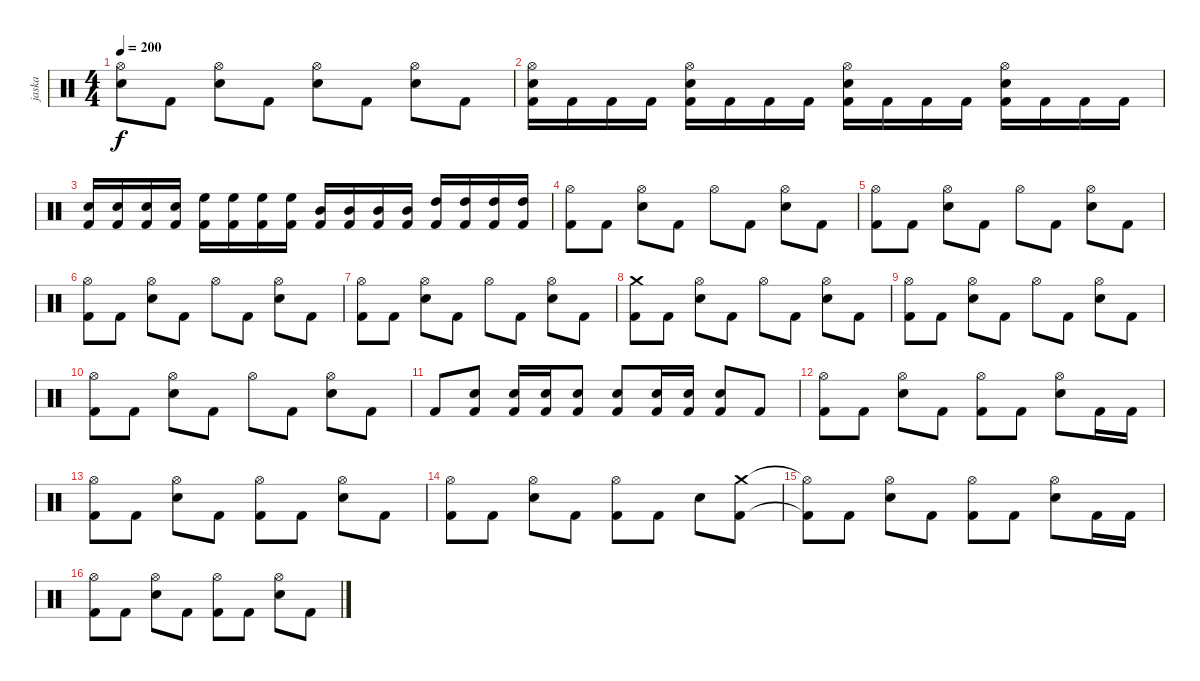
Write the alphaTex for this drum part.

\track ("jaska" "jaska") {instrument percussion}
\staff {score}
\articulation defaults
\ts (4 4)
\tempo 200
\clef neutral
\ks c
("Hi-Hat (open)" "Snare (hit) 2").8{dy f} "Kick (hit) 2".8 ("Hi-Hat (open)" "Snare (hit) 2").8 "Kick (hit) 2".8 ("Hi-Hat (open)" "Snare (hit) 2").8 "Kick (hit) 2".8 ("Hi-Hat (open)" "Snare (hit) 2").8 "Kick (hit) 2".8 |
("Hi-Hat (open)" "Snare (hit) 2" "Kick (hit) 2").16 "Kick (hit) 2".16 "Kick (hit) 2".16 "Kick (hit) 2".16 ("Hi-Hat (open)" "Snare (hit) 2" "Kick (hit) 2").16 "Kick (hit) 2".16 "Kick (hit) 2".16 "Kick (hit) 2".16 ("Hi-Hat (open)" "Snare (hit) 2" "Kick (hit) 2").16 "Kick (hit) 2".16 "Kick (hit) 2".16 "Kick (hit) 2".16 ("Hi-Hat (open)" "Snare (hit) 2" "Kick (hit) 2").16 "Kick (hit) 2".16 "Kick (hit) 2".16 "Kick (hit) 2".16 |
("Snare (hit) 2" "Kick (hit) 2").16 ("Snare (hit) 2" "Kick (hit) 2").16 ("Snare (hit) 2" "Kick (hit) 2").16 ("Snare (hit) 2" "Kick (hit) 2").16 ("High Floor Tom (hit)" "Kick (hit) 2").16 ("High Floor Tom (hit)" "Kick (hit) 2").16 ("High Floor Tom (hit)" "Kick (hit) 2").16 ("High Floor Tom (hit)" "Kick (hit) 2").16 ("Mid Tom (hit)" "Kick (hit) 2").16 ("Mid Tom (hit)" "Kick (hit) 2").16 ("Mid Tom (hit)" "Kick (hit) 2").16 ("Mid Tom (hit)" "Kick (hit) 2").16 ("High Tom (hit)" "Kick (hit) 2").16 ("High Tom (hit)" "Kick (hit) 2").16 ("High Tom (hit)" "Kick (hit) 2").16 ("High Tom (hit)" "Kick (hit) 2").16 |
("Hi-Hat (open)" "Kick (hit) 2").8 "Kick (hit) 2".8 ("Hi-Hat (open)" "Electric Snare (hit)").8 "Kick (hit) 2".8 "Hi-Hat (open)".8 "Kick (hit) 2".8 ("Hi-Hat (open)" "Electric Snare (hit)").8 "Kick (hit) 2".8 |
("Hi-Hat (open)" "Kick (hit) 2").8 "Kick (hit) 2".8 ("Hi-Hat (open)" "Electric Snare (hit)").8 "Kick (hit) 2".8 "Hi-Hat (open)".8 "Kick (hit) 2".8 ("Hi-Hat (open)" "Electric Snare (hit)").8 "Kick (hit) 2".8 |
("Hi-Hat (open)" "Kick (hit) 2").8 "Kick (hit) 2".8 ("Hi-Hat (open)" "Electric Snare (hit)").8 "Kick (hit) 2".8 "Hi-Hat (open)".8 "Kick (hit) 2".8 ("Hi-Hat (open)" "Electric Snare (hit)").8 "Kick (hit) 2".8 |
("Hi-Hat (open)" "Kick (hit) 2").8 "Kick (hit) 2".8 ("Hi-Hat (open)" "Electric Snare (hit)").8 "Kick (hit) 2".8 "Hi-Hat (open)".8 "Kick (hit) 2".8 ("Hi-Hat (open)" "Electric Snare (hit)").8 "Kick (hit) 2".8 |
("Crash medium (hit)" "Kick (hit) 2").8 "Kick (hit) 2".8 ("Hi-Hat (open)" "Electric Snare (hit)").8 "Kick (hit) 2".8 "Hi-Hat (open)".8 "Kick (hit) 2".8 ("Hi-Hat (open)" "Electric Snare (hit)").8 "Kick (hit) 2".8 |
("Hi-Hat (open)" "Kick (hit) 2").8 "Kick (hit) 2".8 ("Hi-Hat (open)" "Electric Snare (hit)").8 "Kick (hit) 2".8 "Hi-Hat (open)".8 "Kick (hit) 2".8 ("Hi-Hat (open)" "Electric Snare (hit)").8 "Kick (hit) 2".8 |
("Hi-Hat (open)" "Kick (hit) 2").8 "Kick (hit) 2".8 ("Hi-Hat (open)" "Electric Snare (hit)").8 "Kick (hit) 2".8 "Hi-Hat (open)".8 "Kick (hit) 2".8 ("Hi-Hat (open)" "Electric Snare (hit)").8 "Kick (hit) 2".8 |
"Kick (hit) 2".8 ("Electric Snare (hit)" "Kick (hit) 2").8 ("Electric Snare (hit)" "Kick (hit) 2").16 ("Electric Snare (hit)" "Kick (hit) 2").16 ("Electric Snare (hit)" "Kick (hit) 2").8 ("Electric Snare (hit)" "Kick (hit) 2").8 ("Electric Snare (hit)" "Kick (hit) 2").16 ("Electric Snare (hit)" "Kick (hit) 2").16 ("Electric Snare (hit)" "Kick (hit) 2").8 "Kick (hit) 2".8 |
("Hi-Hat (open)" "Kick (hit) 2").8 "Kick (hit) 2".8 ("Hi-Hat (open)" "Snare (hit) 2").8 "Kick (hit) 2".8 ("Hi-Hat (open)" "Kick (hit) 2").8 "Kick (hit) 2".8 ("Hi-Hat (open)" "Snare (hit) 2").8 "Kick (hit) 2".16 "Kick (hit) 2".16 |
("Hi-Hat (open)" "Kick (hit) 2").8 "Kick (hit) 2".8 ("Hi-Hat (open)" "Snare (hit) 2").8 "Kick (hit) 2".8 ("Hi-Hat (open)" "Kick (hit) 2").8 "Kick (hit) 2".8 ("Hi-Hat (open)" "Snare (hit) 2").8 "Kick (hit) 2".8 |
("Hi-Hat (open)" "Kick (hit) 2").8 "Kick (hit) 2".8 ("Hi-Hat (open)" "Snare (hit) 2").8 "Kick (hit) 2".8 ("Hi-Hat (open)" "Kick (hit) 2").8 "Kick (hit) 2".8 "Snare (hit) 2".8 ("Crash medium (hit)" "Kick (hit) 2").8 |
("Hi-Hat (open)"{t} "Kick (hit) 2"{t}).8 "Kick (hit) 2".8 ("Hi-Hat (open)" "Snare (hit) 2").8 "Kick (hit) 2".8 ("Hi-Hat (open)" "Kick (hit) 2").8 "Kick (hit) 2".8 ("Hi-Hat (open)" "Snare (hit) 2").8 "Kick (hit) 2".16 "Kick (hit) 2".16 |
("Hi-Hat (open)" "Kick (hit) 2").8 "Kick (hit) 2".8 ("Hi-Hat (open)" "Snare (hit) 2").8 "Kick (hit) 2".8 ("Hi-Hat (open)" "Kick (hit) 2").8 "Kick (hit) 2".8 ("Hi-Hat (open)" "Snare (hit) 2").8 "Kick (hit) 2".8
